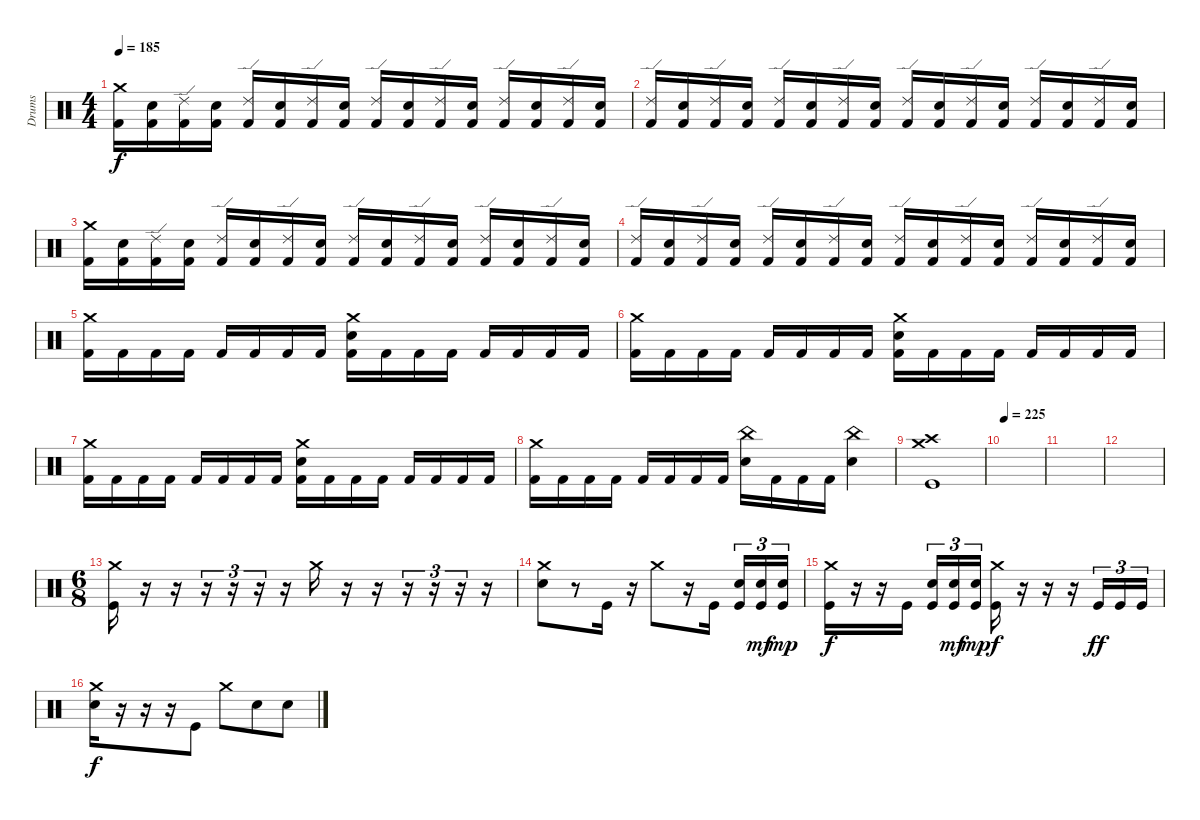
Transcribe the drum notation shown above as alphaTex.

\track ("Drums" "Drums") {instrument percussion}
\staff {score}
\articulation defaults
\ts (4 4)
\tempo 185
\clef neutral
\ks c
("Crash medium (hit)" "Kick (hit) 2").16{dy f} ("Snare (hit) 2" "Kick (hit) 2").16 ("Ride (edge) 2" "Kick (hit) 2").16 ("Snare (hit) 2" "Kick (hit) 2").16 ("Ride (edge) 2" "Kick (hit) 2").16 ("Snare (hit) 2" "Kick (hit) 2").16 ("Ride (edge) 2" "Kick (hit) 2").16 ("Snare (hit) 2" "Kick (hit) 2").16 ("Ride (edge) 2" "Kick (hit) 2").16 ("Snare (hit) 2" "Kick (hit) 2").16 ("Ride (edge) 2" "Kick (hit) 2").16 ("Snare (hit) 2" "Kick (hit) 2").16 ("Ride (edge) 2" "Kick (hit) 2").16 ("Snare (hit) 2" "Kick (hit) 2").16 ("Ride (edge) 2" "Kick (hit) 2").16 ("Snare (hit) 2" "Kick (hit) 2").16 |
("Ride (edge) 2" "Kick (hit) 2").16 ("Snare (hit) 2" "Kick (hit) 2").16 ("Ride (edge) 2" "Kick (hit) 2").16 ("Snare (hit) 2" "Kick (hit) 2").16 ("Ride (edge) 2" "Kick (hit) 2").16 ("Snare (hit) 2" "Kick (hit) 2").16 ("Ride (edge) 2" "Kick (hit) 2").16 ("Snare (hit) 2" "Kick (hit) 2").16 ("Ride (edge) 2" "Kick (hit) 2").16 ("Snare (hit) 2" "Kick (hit) 2").16 ("Ride (edge) 2" "Kick (hit) 2").16 ("Snare (hit) 2" "Kick (hit) 2").16 ("Ride (edge) 2" "Kick (hit) 2").16 ("Snare (hit) 2" "Kick (hit) 2").16 ("Ride (edge) 2" "Kick (hit) 2").16 ("Snare (hit) 2" "Kick (hit) 2").16 |
("Crash medium (hit)" "Kick (hit) 2").16 ("Snare (hit) 2" "Kick (hit) 2").16 ("Ride (edge) 2" "Kick (hit) 2").16 ("Snare (hit) 2" "Kick (hit) 2").16 ("Ride (edge) 2" "Kick (hit) 2").16 ("Snare (hit) 2" "Kick (hit) 2").16 ("Ride (edge) 2" "Kick (hit) 2").16 ("Snare (hit) 2" "Kick (hit) 2").16 ("Ride (edge) 2" "Kick (hit) 2").16 ("Snare (hit) 2" "Kick (hit) 2").16 ("Ride (edge) 2" "Kick (hit) 2").16 ("Snare (hit) 2" "Kick (hit) 2").16 ("Ride (edge) 2" "Kick (hit) 2").16 ("Snare (hit) 2" "Kick (hit) 2").16 ("Ride (edge) 2" "Kick (hit) 2").16 ("Snare (hit) 2" "Kick (hit) 2").16 |
("Ride (edge) 2" "Kick (hit) 2").16 ("Snare (hit) 2" "Kick (hit) 2").16 ("Ride (edge) 2" "Kick (hit) 2").16 ("Snare (hit) 2" "Kick (hit) 2").16 ("Ride (edge) 2" "Kick (hit) 2").16 ("Snare (hit) 2" "Kick (hit) 2").16 ("Ride (edge) 2" "Kick (hit) 2").16 ("Snare (hit) 2" "Kick (hit) 2").16 ("Ride (edge) 2" "Kick (hit) 2").16 ("Snare (hit) 2" "Kick (hit) 2").16 ("Ride (edge) 2" "Kick (hit) 2").16 ("Snare (hit) 2" "Kick (hit) 2").16 ("Ride (edge) 2" "Kick (hit) 2").16 ("Snare (hit) 2" "Kick (hit) 2").16 ("Ride (edge) 2" "Kick (hit) 2").16 ("Snare (hit) 2" "Kick (hit) 2").16 |
("Crash medium (hit)" "Kick (hit) 2").16 "Kick (hit) 2".16 "Kick (hit) 2".16 "Kick (hit) 2".16 "Kick (hit) 2".16 "Kick (hit) 2".16 "Kick (hit) 2".16 "Kick (hit) 2".16 ("Crash medium (hit)" "Snare (hit) 2" "Kick (hit) 2").16 "Kick (hit) 2".16 "Kick (hit) 2".16 "Kick (hit) 2".16 "Kick (hit) 2".16 "Kick (hit) 2".16 "Kick (hit) 2".16 "Kick (hit) 2".16 |
("Crash medium (hit)" "Kick (hit) 2").16 "Kick (hit) 2".16 "Kick (hit) 2".16 "Kick (hit) 2".16 "Kick (hit) 2".16 "Kick (hit) 2".16 "Kick (hit) 2".16 "Kick (hit) 2".16 ("Crash medium (hit)" "Snare (hit) 2" "Kick (hit) 2").16 "Kick (hit) 2".16 "Kick (hit) 2".16 "Kick (hit) 2".16 "Kick (hit) 2".16 "Kick (hit) 2".16 "Kick (hit) 2".16 "Kick (hit) 2".16 |
("Crash medium (hit)" "Kick (hit) 2").16 "Kick (hit) 2".16 "Kick (hit) 2".16 "Kick (hit) 2".16 "Kick (hit) 2".16 "Kick (hit) 2".16 "Kick (hit) 2".16 "Kick (hit) 2".16 ("Crash medium (hit)" "Snare (hit) 2" "Kick (hit) 2").16 "Kick (hit) 2".16 "Kick (hit) 2".16 "Kick (hit) 2".16 "Kick (hit) 2".16 "Kick (hit) 2".16 "Kick (hit) 2".16 "Kick (hit) 2".16 |
("Crash medium (hit)" "Kick (hit) 2").16 "Kick (hit) 2".16 "Kick (hit) 2".16 "Kick (hit) 2".16 "Kick (hit) 2".16 "Kick (hit) 2".16 "Kick (hit) 2".16 "Kick (hit) 2".16 ("China (hit)" "Snare (hit) 2").16 "Kick (hit) 2".16 "Kick (hit) 2".16 "Kick (hit) 2".16 ("China (hit)" "Snare (hit) 2").4 |
("Kick (hit)" "Crash high (hit)" "Crash medium (hit)").1 |
\tempo 225
|
|
|
\ts (6 8)
("Kick (hit)" "Crash medium (hit)").16 r.16 r.16 r.16{tu (3 2)} r.16{tu (3 2)} r.16{tu (3 2)} r.16 "Crash medium (hit)".16 r.16 r.16 r.16{tu (3 2)} r.16{tu (3 2)} r.16{tu (3 2)} r.16 |
("Snare (hit) 2" "Crash medium (hit)").8 r.8 "Kick (hit)".16 r.16 "Crash medium (hit)".8 r.16 "Kick (hit)".16{beam splitsecondary} ("Kick (hit)" "Snare (hit) 2").16{tu (3 2)} ("Kick (hit)" "Snare (hit) 2").16{tu (3 2) dy mf} ("Kick (hit)" "Snare (hit) 2").16{tu (3 2) dy mp} |
("Kick (hit)" "Crash medium (hit)").16{dy f} r.16 r.16 "Kick (hit)".16{beam splitsecondary} ("Kick (hit)" "Snare (hit) 2").16{tu (3 2)} ("Kick (hit)" "Snare (hit) 2").16{tu (3 2) dy mf} ("Kick (hit)" "Snare (hit) 2").16{tu (3 2) dy mp} ("Kick (hit)" "Crash medium (hit)").16{dy f} r.16 r.16 r.16 "Kick (hit)".16{tu (3 2) dy ff} "Kick (hit)".16{tu (3 2)} "Kick (hit)".16{tu (3 2)} |
("Snare (hit) 2" "Crash medium (hit)").16{dy f} r.16 r.16 r.16 "Kick (hit)".8 "Crash medium (hit)".8 "Snare (hit) 2".8 "Snare (hit) 2".8
